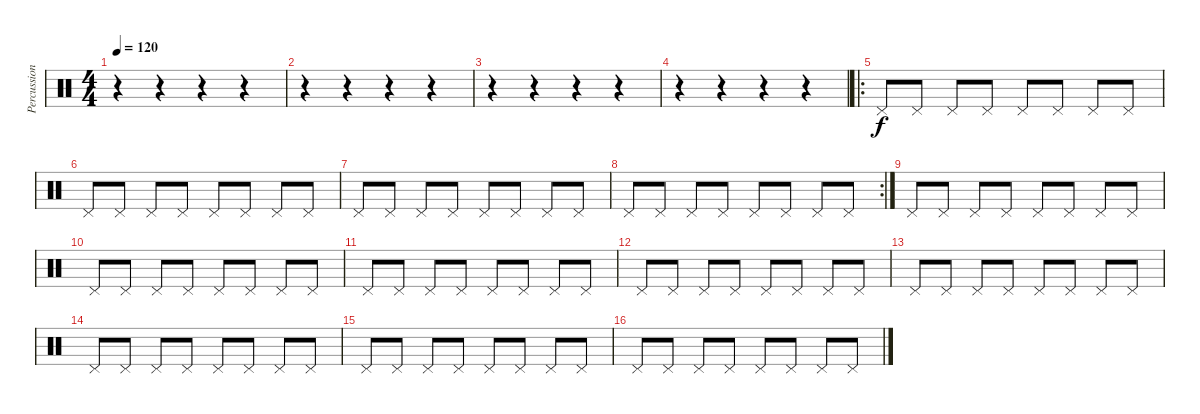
\track ("Percussion" "Percussion") {instrument percussion}
\staff {score}
\articulation defaults
\ts (4 4)
\tempo 120
\clef neutral
\ks c
r.4{dy f} r.4 r.4 r.4 |
r.4 r.4 r.4 r.4 |
r.4 r.4 r.4 r.4 |
r.4 r.4 r.4 r.4 |
\ro "Pedal Hi-Hat (hit)".8 "Pedal Hi-Hat (hit)".8 "Pedal Hi-Hat (hit)".8 "Pedal Hi-Hat (hit)".8 "Pedal Hi-Hat (hit)".8 "Pedal Hi-Hat (hit)".8 "Pedal Hi-Hat (hit)".8 "Pedal Hi-Hat (hit)".8
|
"Pedal Hi-Hat (hit)".8 "Pedal Hi-Hat (hit)".8 "Pedal Hi-Hat (hit)".8 "Pedal Hi-Hat (hit)".8 "Pedal Hi-Hat (hit)".8 "Pedal Hi-Hat (hit)".8 "Pedal Hi-Hat (hit)".8 "Pedal Hi-Hat (hit)".8 |
"Pedal Hi-Hat (hit)".8 "Pedal Hi-Hat (hit)".8 "Pedal Hi-Hat (hit)".8 "Pedal Hi-Hat (hit)".8 "Pedal Hi-Hat (hit)".8 "Pedal Hi-Hat (hit)".8 "Pedal Hi-Hat (hit)".8 "Pedal Hi-Hat (hit)".8 |
\rc 2 "Pedal Hi-Hat (hit)".8 "Pedal Hi-Hat (hit)".8 "Pedal Hi-Hat (hit)".8 "Pedal Hi-Hat (hit)".8 "Pedal Hi-Hat (hit)".8 "Pedal Hi-Hat (hit)".8 "Pedal Hi-Hat (hit)".8 "Pedal Hi-Hat (hit)".8
|
"Pedal Hi-Hat (hit)".8 "Pedal Hi-Hat (hit)".8 "Pedal Hi-Hat (hit)".8 "Pedal Hi-Hat (hit)".8 "Pedal Hi-Hat (hit)".8 "Pedal Hi-Hat (hit)".8 "Pedal Hi-Hat (hit)".8 "Pedal Hi-Hat (hit)".8 |
"Pedal Hi-Hat (hit)".8 "Pedal Hi-Hat (hit)".8 "Pedal Hi-Hat (hit)".8 "Pedal Hi-Hat (hit)".8 "Pedal Hi-Hat (hit)".8 "Pedal Hi-Hat (hit)".8 "Pedal Hi-Hat (hit)".8 "Pedal Hi-Hat (hit)".8 |
"Pedal Hi-Hat (hit)".8 "Pedal Hi-Hat (hit)".8 "Pedal Hi-Hat (hit)".8 "Pedal Hi-Hat (hit)".8 "Pedal Hi-Hat (hit)".8 "Pedal Hi-Hat (hit)".8 "Pedal Hi-Hat (hit)".8 "Pedal Hi-Hat (hit)".8 |
"Pedal Hi-Hat (hit)".8 "Pedal Hi-Hat (hit)".8 "Pedal Hi-Hat (hit)".8 "Pedal Hi-Hat (hit)".8 "Pedal Hi-Hat (hit)".8 "Pedal Hi-Hat (hit)".8 "Pedal Hi-Hat (hit)".8 "Pedal Hi-Hat (hit)".8 |
"Pedal Hi-Hat (hit)".8 "Pedal Hi-Hat (hit)".8 "Pedal Hi-Hat (hit)".8 "Pedal Hi-Hat (hit)".8 "Pedal Hi-Hat (hit)".8 "Pedal Hi-Hat (hit)".8 "Pedal Hi-Hat (hit)".8 "Pedal Hi-Hat (hit)".8 |
"Pedal Hi-Hat (hit)".8 "Pedal Hi-Hat (hit)".8 "Pedal Hi-Hat (hit)".8 "Pedal Hi-Hat (hit)".8 "Pedal Hi-Hat (hit)".8 "Pedal Hi-Hat (hit)".8 "Pedal Hi-Hat (hit)".8 "Pedal Hi-Hat (hit)".8 |
"Pedal Hi-Hat (hit)".8 "Pedal Hi-Hat (hit)".8 "Pedal Hi-Hat (hit)".8 "Pedal Hi-Hat (hit)".8 "Pedal Hi-Hat (hit)".8 "Pedal Hi-Hat (hit)".8 "Pedal Hi-Hat (hit)".8 "Pedal Hi-Hat (hit)".8 |
"Pedal Hi-Hat (hit)".8 "Pedal Hi-Hat (hit)".8 "Pedal Hi-Hat (hit)".8 "Pedal Hi-Hat (hit)".8 "Pedal Hi-Hat (hit)".8 "Pedal Hi-Hat (hit)".8 "Pedal Hi-Hat (hit)".8 "Pedal Hi-Hat (hit)".8
